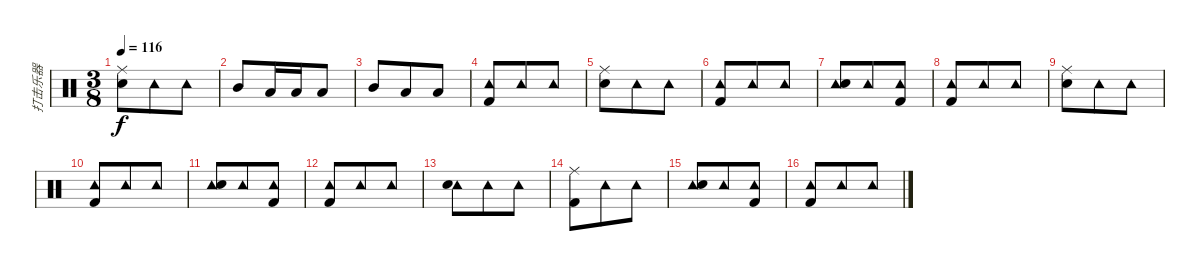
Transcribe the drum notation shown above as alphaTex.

\track ("打击乐器" "打击乐器") {instrument percussion}
\staff {score}
\articulation defaults
\ts (3 8)
\tempo 116
\clef neutral
\ks c
("Ride (middle)" "Snare (hit) 2").8{dy f} "Tambourine (hit)".8 "Tambourine (hit)".8 |
"Mid Tom (hit)".8 "Low Tom (hit)".16 "Low Floor Tom (hit)".16 "Low Floor Tom (hit)".8 |
"Mid Tom (hit)".8 "Low Tom (hit)".8 "Low Floor Tom (hit)".8 |
("Tambourine (hit)" "Kick (hit) 2").8 "Tambourine (hit)".8 "Tambourine (hit)".8 |
("Ride (middle)" "Snare (hit) 2").8 "Tambourine (hit)".8 "Tambourine (hit)".8 |
("Tambourine (hit)" "Kick (hit) 2").8 "Tambourine (hit)".8 "Tambourine (hit)".8 |
("Tambourine (hit)" "Snare (hit) 2").8 "Tambourine (hit)".8 ("Tambourine (hit)" "Kick (hit) 2").8 |
("Tambourine (hit)" "Kick (hit) 2").8 "Tambourine (hit)".8 "Tambourine (hit)".8 |
("Ride (middle)" "Snare (hit) 2").8 "Tambourine (hit)".8 "Tambourine (hit)".8 |
("Tambourine (hit)" "Kick (hit) 2").8 "Tambourine (hit)".8 "Tambourine (hit)".8 |
("Tambourine (hit)" "Snare (hit) 2").8 "Tambourine (hit)".8 ("Tambourine (hit)" "Kick (hit) 2").8 |
("Tambourine (hit)" "Kick (hit) 2").8 "Tambourine (hit)".8 "Tambourine (hit)".8 |
("Tambourine (hit)" "Snare (hit) 2").8 "Tambourine (hit)".8 "Tambourine (hit)".8 |
("Ride (middle)" "Kick (hit) 2").8 "Tambourine (hit)".8 "Tambourine (hit)".8 |
("Tambourine (hit)" "Snare (hit) 2").8 "Tambourine (hit)".8 ("Tambourine (hit)" "Kick (hit) 2").8 |
("Tambourine (hit)" "Kick (hit) 2").8 "Tambourine (hit)".8 "Tambourine (hit)".8
